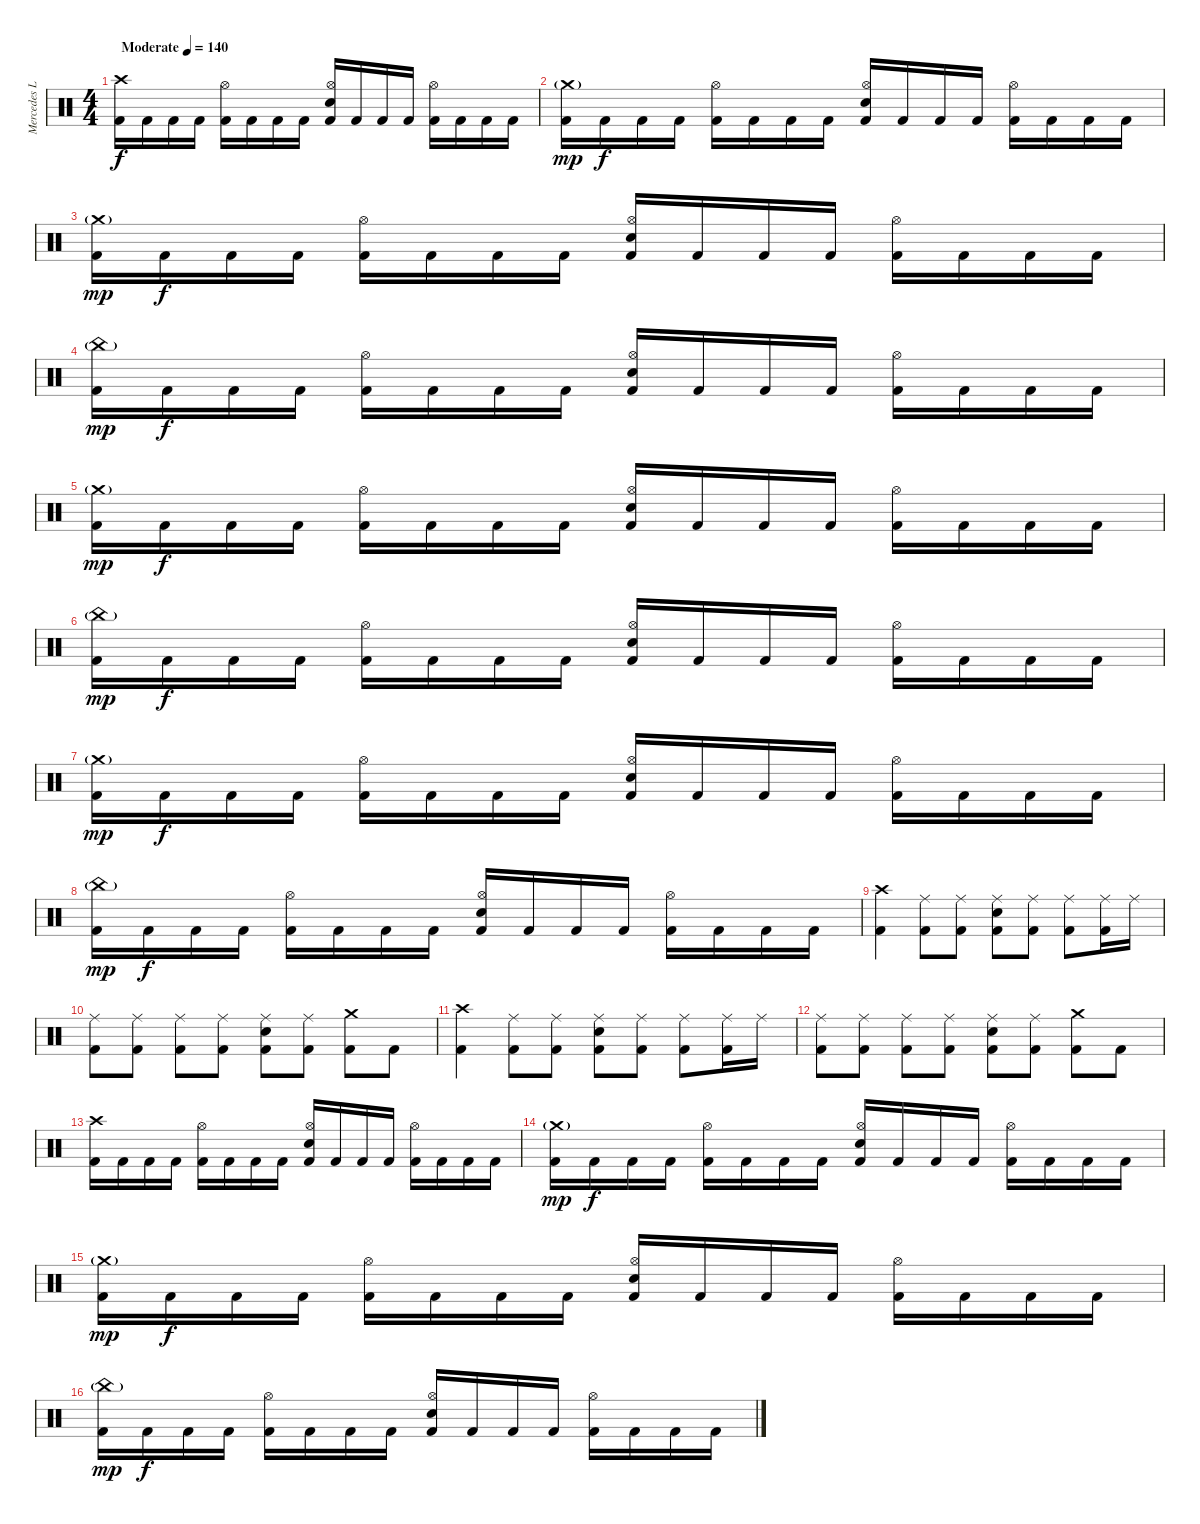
\track ("Mercedes Lander" "Mercedes L") {instrument percussion}
\staff {score}
\articulation defaults
\ts (4 4)
\tempo (140 "Moderate")
\clef neutral
\ks c
("Crash high (hit)" "Kick (hit) 2").16{dy f} "Kick (hit) 2".16 "Kick (hit) 2".16 "Kick (hit) 2".16 ("Hi-Hat (open)" "Kick (hit) 2").16 "Kick (hit) 2".16 "Kick (hit) 2".16 "Kick (hit) 2".16 ("Hi-Hat (open)" "Snare (hit) 2" "Kick (hit) 2").16 "Kick (hit) 2".16 "Kick (hit) 2".16 "Kick (hit) 2".16 ("Hi-Hat (open)" "Kick (hit) 2").16 "Kick (hit) 2".16 "Kick (hit) 2".16 "Kick (hit) 2".16 |
("Crash medium (hit)"{g} "Kick (hit) 2").16{dy mp} "Kick (hit) 2".16{dy f} "Kick (hit) 2".16 "Kick (hit) 2".16 ("Hi-Hat (open)" "Kick (hit) 2").16 "Kick (hit) 2".16 "Kick (hit) 2".16 "Kick (hit) 2".16 ("Hi-Hat (open)" "Snare (hit) 2" "Kick (hit) 2").16 "Kick (hit) 2".16 "Kick (hit) 2".16 "Kick (hit) 2".16 ("Hi-Hat (open)" "Kick (hit) 2").16 "Kick (hit) 2".16 "Kick (hit) 2".16 "Kick (hit) 2".16 |
("Crash medium (hit)"{g} "Kick (hit) 2").16{dy mp} "Kick (hit) 2".16{dy f} "Kick (hit) 2".16 "Kick (hit) 2".16 ("Hi-Hat (open)" "Kick (hit) 2").16 "Kick (hit) 2".16 "Kick (hit) 2".16 "Kick (hit) 2".16 ("Hi-Hat (open)" "Snare (hit) 2" "Kick (hit) 2").16 "Kick (hit) 2".16 "Kick (hit) 2".16 "Kick (hit) 2".16 ("Hi-Hat (open)" "Kick (hit) 2").16 "Kick (hit) 2".16 "Kick (hit) 2".16 "Kick (hit) 2".16 |
("China (hit)"{g} "Kick (hit) 2").16{dy mp} "Kick (hit) 2".16{dy f} "Kick (hit) 2".16 "Kick (hit) 2".16 ("Hi-Hat (open)" "Kick (hit) 2").16 "Kick (hit) 2".16 "Kick (hit) 2".16 "Kick (hit) 2".16 ("Hi-Hat (open)" "Snare (hit) 2" "Kick (hit) 2").16 "Kick (hit) 2".16 "Kick (hit) 2".16 "Kick (hit) 2".16 ("Hi-Hat (open)" "Kick (hit) 2").16 "Kick (hit) 2".16 "Kick (hit) 2".16 "Kick (hit) 2".16 |
("Crash medium (hit)"{g} "Kick (hit) 2").16{dy mp} "Kick (hit) 2".16{dy f} "Kick (hit) 2".16 "Kick (hit) 2".16 ("Hi-Hat (open)" "Kick (hit) 2").16 "Kick (hit) 2".16 "Kick (hit) 2".16 "Kick (hit) 2".16 ("Hi-Hat (open)" "Snare (hit) 2" "Kick (hit) 2").16 "Kick (hit) 2".16 "Kick (hit) 2".16 "Kick (hit) 2".16 ("Hi-Hat (open)" "Kick (hit) 2").16 "Kick (hit) 2".16 "Kick (hit) 2".16 "Kick (hit) 2".16 |
("China (hit)"{g} "Kick (hit) 2").16{dy mp} "Kick (hit) 2".16{dy f} "Kick (hit) 2".16 "Kick (hit) 2".16 ("Hi-Hat (open)" "Kick (hit) 2").16 "Kick (hit) 2".16 "Kick (hit) 2".16 "Kick (hit) 2".16 ("Hi-Hat (open)" "Snare (hit) 2" "Kick (hit) 2").16 "Kick (hit) 2".16 "Kick (hit) 2".16 "Kick (hit) 2".16 ("Hi-Hat (open)" "Kick (hit) 2").16 "Kick (hit) 2".16 "Kick (hit) 2".16 "Kick (hit) 2".16 |
("Crash medium (hit)"{g} "Kick (hit) 2").16{dy mp} "Kick (hit) 2".16{dy f} "Kick (hit) 2".16 "Kick (hit) 2".16 ("Hi-Hat (open)" "Kick (hit) 2").16 "Kick (hit) 2".16 "Kick (hit) 2".16 "Kick (hit) 2".16 ("Hi-Hat (open)" "Snare (hit) 2" "Kick (hit) 2").16 "Kick (hit) 2".16 "Kick (hit) 2".16 "Kick (hit) 2".16 ("Hi-Hat (open)" "Kick (hit) 2").16 "Kick (hit) 2".16 "Kick (hit) 2".16 "Kick (hit) 2".16 |
("China (hit)"{g} "Kick (hit) 2").16{dy mp} "Kick (hit) 2".16{dy f} "Kick (hit) 2".16 "Kick (hit) 2".16 ("Hi-Hat (open)" "Kick (hit) 2").16 "Kick (hit) 2".16 "Kick (hit) 2".16 "Kick (hit) 2".16 ("Hi-Hat (open)" "Snare (hit) 2" "Kick (hit) 2").16 "Kick (hit) 2".16 "Kick (hit) 2".16 "Kick (hit) 2".16 ("Hi-Hat (open)" "Kick (hit) 2").16 "Kick (hit) 2".16 "Kick (hit) 2".16 "Kick (hit) 2".16 |
("Crash high (hit)" "Kick (hit) 2").4 ("Ride (middle)" "Kick (hit) 2").8 ("Ride (middle)" "Kick (hit) 2").8 ("Ride (middle)" "Snare (hit) 2" "Kick (hit) 2").8 ("Ride (middle)" "Kick (hit) 2").8 ("Ride (middle)" "Kick (hit) 2").8 ("Ride (middle)" "Kick (hit) 2").16 "Ride (middle)".16 |
("Ride (middle)" "Kick (hit) 2").8 ("Ride (middle)" "Kick (hit) 2").8 ("Ride (middle)" "Kick (hit) 2").8 ("Ride (middle)" "Kick (hit) 2").8 ("Ride (middle)" "Snare (hit) 2" "Kick (hit) 2").8 ("Ride (middle)" "Kick (hit) 2").8 ("Crash medium (hit)" "Kick (hit) 2").8 "Kick (hit) 2".8 |
("Crash high (hit)" "Kick (hit) 2").4 ("Ride (middle)" "Kick (hit) 2").8 ("Ride (middle)" "Kick (hit) 2").8 ("Ride (middle)" "Snare (hit) 2" "Kick (hit) 2").8 ("Ride (middle)" "Kick (hit) 2").8 ("Ride (middle)" "Kick (hit) 2").8 ("Ride (middle)" "Kick (hit) 2").16 "Ride (middle)".16 |
("Ride (middle)" "Kick (hit) 2").8 ("Ride (middle)" "Kick (hit) 2").8 ("Ride (middle)" "Kick (hit) 2").8 ("Ride (middle)" "Kick (hit) 2").8 ("Ride (middle)" "Snare (hit) 2" "Kick (hit) 2").8 ("Ride (middle)" "Kick (hit) 2").8 ("Crash medium (hit)" "Kick (hit) 2").8 "Kick (hit) 2".8 |
("Crash high (hit)" "Kick (hit) 2").16 "Kick (hit) 2".16 "Kick (hit) 2".16 "Kick (hit) 2".16 ("Hi-Hat (open)" "Kick (hit) 2").16 "Kick (hit) 2".16 "Kick (hit) 2".16 "Kick (hit) 2".16 ("Hi-Hat (open)" "Snare (hit) 2" "Kick (hit) 2").16 "Kick (hit) 2".16 "Kick (hit) 2".16 "Kick (hit) 2".16 ("Hi-Hat (open)" "Kick (hit) 2").16 "Kick (hit) 2".16 "Kick (hit) 2".16 "Kick (hit) 2".16 |
("Crash medium (hit)"{g} "Kick (hit) 2").16{dy mp} "Kick (hit) 2".16{dy f} "Kick (hit) 2".16 "Kick (hit) 2".16 ("Hi-Hat (open)" "Kick (hit) 2").16 "Kick (hit) 2".16 "Kick (hit) 2".16 "Kick (hit) 2".16 ("Hi-Hat (open)" "Snare (hit) 2" "Kick (hit) 2").16 "Kick (hit) 2".16 "Kick (hit) 2".16 "Kick (hit) 2".16 ("Hi-Hat (open)" "Kick (hit) 2").16 "Kick (hit) 2".16 "Kick (hit) 2".16 "Kick (hit) 2".16 |
("Crash medium (hit)"{g} "Kick (hit) 2").16{dy mp} "Kick (hit) 2".16{dy f} "Kick (hit) 2".16 "Kick (hit) 2".16 ("Hi-Hat (open)" "Kick (hit) 2").16 "Kick (hit) 2".16 "Kick (hit) 2".16 "Kick (hit) 2".16 ("Hi-Hat (open)" "Snare (hit) 2" "Kick (hit) 2").16 "Kick (hit) 2".16 "Kick (hit) 2".16 "Kick (hit) 2".16 ("Hi-Hat (open)" "Kick (hit) 2").16 "Kick (hit) 2".16 "Kick (hit) 2".16 "Kick (hit) 2".16 |
("China (hit)"{g} "Kick (hit) 2").16{dy mp} "Kick (hit) 2".16{dy f} "Kick (hit) 2".16 "Kick (hit) 2".16 ("Hi-Hat (open)" "Kick (hit) 2").16 "Kick (hit) 2".16 "Kick (hit) 2".16 "Kick (hit) 2".16 ("Hi-Hat (open)" "Snare (hit) 2" "Kick (hit) 2").16 "Kick (hit) 2".16 "Kick (hit) 2".16 "Kick (hit) 2".16 ("Hi-Hat (open)" "Kick (hit) 2").16 "Kick (hit) 2".16 "Kick (hit) 2".16 "Kick (hit) 2".16
